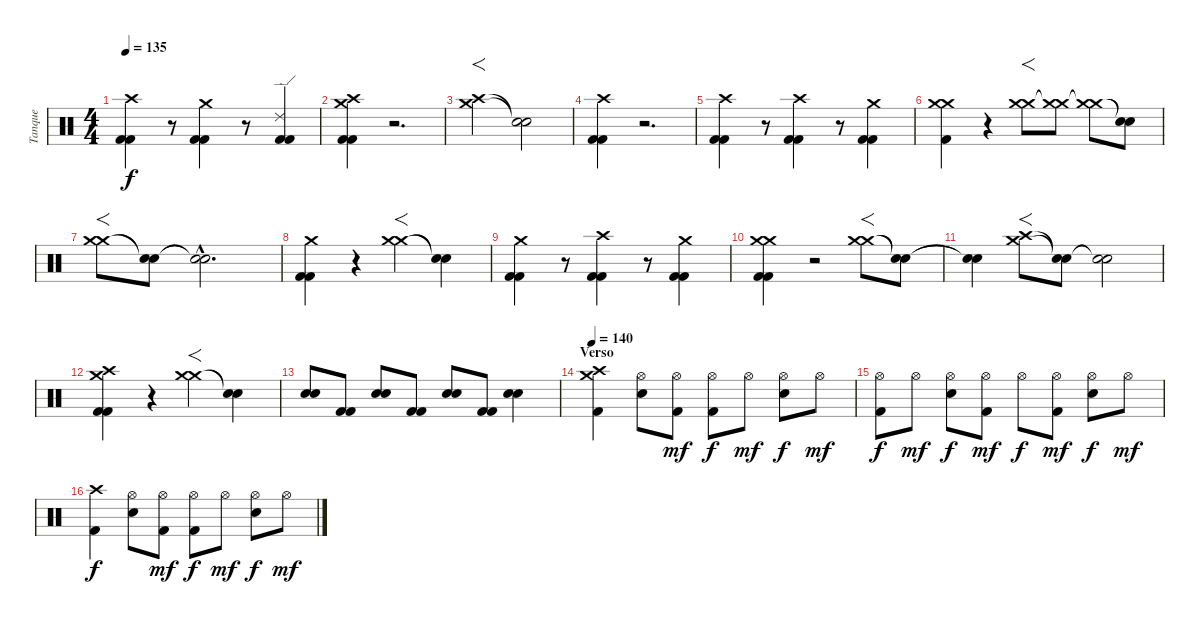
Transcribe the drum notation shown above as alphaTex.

\track ("Tanque" "Tanque") {instrument percussion}
\staff {score}
\articulation defaults
\ts (4 4)
\tempo 135
\clef neutral
\ks c
("Crash high (hit)" "Kick (hit) 2" "Kick (hit) 2").4{dy f} r.8 ("Crash medium (hit)" "Kick (hit) 2" "Kick (hit) 2").4 r.8 ("Ride (edge) 2" "Kick (hit) 2" "Kick (hit) 2").4 |
("Crash high (hit)" "Crash medium (hit)" "Kick (hit) 2" "Kick (hit) 2").4 r.2{d} |
("Crash medium (hit)" "Crash high (hit)").2{f} ("Snare (hit)"{t} "Snare (hit)"{t}).2 |
("Crash high (hit)" "Kick (hit) 2" "Kick (hit) 2").4 r.2{d} |
("Crash high (hit)" "Kick (hit) 2" "Kick (hit) 2").4 r.8 ("Crash high (hit)" "Kick (hit) 2" "Kick (hit) 2").4 r.8 ("Crash medium (hit)" "Kick (hit) 2" "Kick (hit) 2").4 |
("Crash medium (hit)" "Crash medium (hit)" "Kick (hit) 2").4 r.4 ("Crash medium (hit)" "Crash medium (hit)").8{f} ("Crash medium (hit)"{t} "Crash medium (hit)"{t}).8 ("Crash medium (hit)"{t} "Crash medium (hit)"{t}).8 ("Snare (hit)"{t} "Snare (hit)"{t}).8 |
("Crash medium (hit)" "Crash medium (hit)").8{f} ("Snare (hit)"{t} "Snare (hit)"{t}).8 ("Snare (hit)"{hac t} "Snare (hit)"{hac t}).2{d} |
("Crash medium (hit)" "Kick (hit) 2" "Kick (hit) 2").4 r.4 ("Crash medium (hit)" "Crash medium (hit)").4{f} ("Snare (hit)"{t} "Snare (hit)"{t}).4 |
("Crash medium (hit)" "Kick (hit) 2" "Kick (hit) 2").4 r.8 ("Crash high (hit)" "Kick (hit) 2" "Kick (hit) 2").4 r.8 ("Crash medium (hit)" "Kick (hit) 2" "Kick (hit) 2").4 |
("Crash medium (hit)" "Crash medium (hit)" "Kick (hit) 2" "Kick (hit) 2").4 r.2 ("Crash medium (hit)" "Crash medium (hit)").8{f} ("Snare (hit)"{t} "Snare (hit)"{t}).8 |
("Snare (hit)"{t} "Snare (hit)"{t}).4 ("Crash high (hit)" "Crash medium (hit)").8{f} ("Snare (hit)"{t} "Snare (hit)"{t}).8 ("Snare (hit)"{t} "Snare (hit)"{t}).2 |
("Crash medium (hit)" "Crash high (hit)" "Kick (hit) 2" "Kick (hit) 2").4 r.4 ("Crash medium (hit)" "Crash medium (hit)").4{f} ("Snare (hit)"{t} "Snare (hit)"{t}).4 |
("Electric Snare (hit)" "Electric Snare (hit)").8 ("Kick (hit) 2" "Kick (hit) 2").8 ("Electric Snare (hit)" "Electric Snare (hit)").8 ("Kick (hit) 2" "Kick (hit) 2").8 ("Electric Snare (hit)" "Electric Snare (hit)").8 ("Kick (hit) 2" "Kick (hit) 2").8 ("Electric Snare (hit)" "Electric Snare (hit)").4 |
\section ("" "Verso")
\tempo 140
("Crash medium (hit)" "Crash high (hit)" "Kick (hit) 2").4 ("Hi-Hat (open)" "Electric Snare (hit)").8 ("Hi-Hat (open)" "Kick (hit) 2").8{dy mf} ("Hi-Hat (open)" "Kick (hit) 2").8{dy f} "Hi-Hat (open)".8{dy mf} ("Hi-Hat (open)" "Electric Snare (hit)").8{dy f} "Hi-Hat (open)".8{dy mf} |
("Hi-Hat (open)" "Kick (hit) 2").8{dy f} "Hi-Hat (open)".8{dy mf} ("Hi-Hat (open)" "Electric Snare (hit)").8{dy f} ("Hi-Hat (open)" "Kick (hit) 2").8{dy mf} "Hi-Hat (open)".8{dy f} ("Hi-Hat (open)" "Kick (hit) 2").8{dy mf} ("Hi-Hat (open)" "Electric Snare (hit)").8{dy f} "Hi-Hat (open)".8{dy mf} |
("Crash high (hit)" "Kick (hit) 2").4{dy f} ("Hi-Hat (open)" "Electric Snare (hit)").8 ("Hi-Hat (open)" "Kick (hit) 2").8{dy mf} ("Hi-Hat (open)" "Kick (hit) 2").8{dy f} "Hi-Hat (open)".8{dy mf} ("Hi-Hat (open)" "Electric Snare (hit)").8{dy f} "Hi-Hat (open)".8{dy mf}
